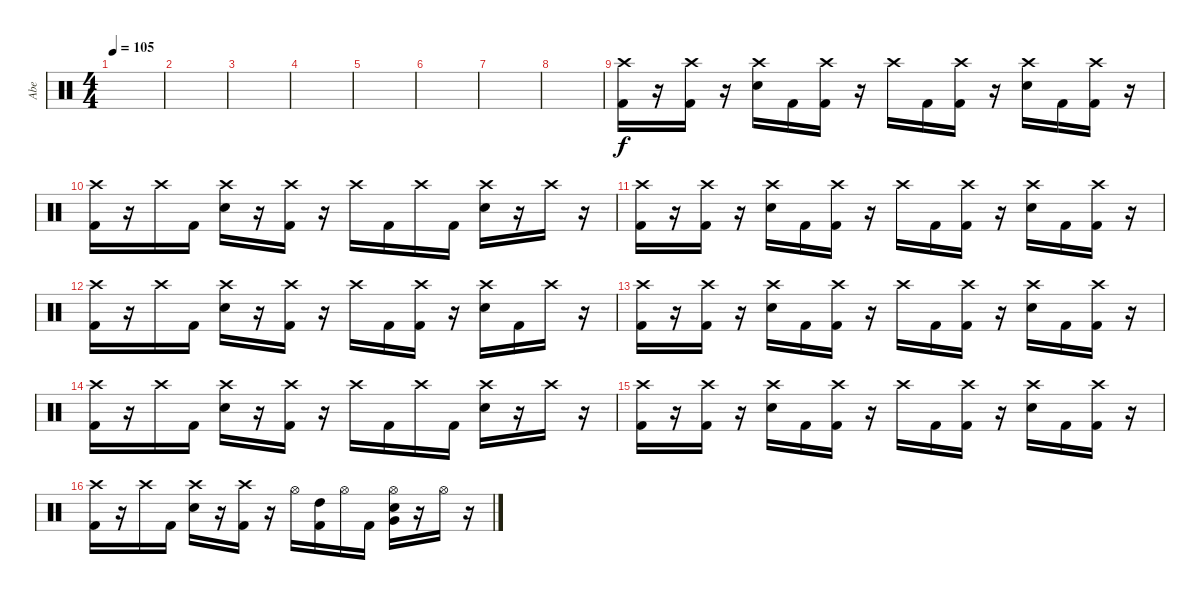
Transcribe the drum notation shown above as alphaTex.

\track ("Abe" "Abe") {instrument percussion}
\staff {score}
\articulation defaults
\ts (4 4)
\tempo 105
\clef neutral
\ks c
|
|
|
|
|
|
|
|
("Crash high (hit)" "Kick (hit) 2").16 r.16 ("Crash high (hit)" "Kick (hit) 2").16 r.16 ("Crash high (hit)" "Electric Snare (hit)").16 "Kick (hit) 2".16 ("Crash high (hit)" "Kick (hit) 2").16 r.16 "Crash high (hit)".16 "Kick (hit) 2".16 ("Crash high (hit)" "Kick (hit) 2").16 r.16 ("Crash high (hit)" "Electric Snare (hit)").16 "Kick (hit) 2".16 ("Crash high (hit)" "Kick (hit) 2").16 r.16 |
("Crash high (hit)" "Kick (hit) 2").16 r.16 "Crash high (hit)".16 "Kick (hit) 2".16 ("Crash high (hit)" "Electric Snare (hit)").16 r.16 ("Crash high (hit)" "Kick (hit) 2").16 r.16 "Crash high (hit)".16 "Kick (hit) 2".16 "Crash high (hit)".16 "Kick (hit) 2".16 ("Crash high (hit)" "Electric Snare (hit)").16 r.16 "Crash high (hit)".16 r.16 |
("Crash high (hit)" "Kick (hit) 2").16 r.16 ("Crash high (hit)" "Kick (hit) 2").16 r.16 ("Crash high (hit)" "Electric Snare (hit)").16 "Kick (hit) 2".16 ("Crash high (hit)" "Kick (hit) 2").16 r.16 "Crash high (hit)".16 "Kick (hit) 2".16 ("Crash high (hit)" "Kick (hit) 2").16 r.16 ("Crash high (hit)" "Electric Snare (hit)").16 "Kick (hit) 2".16 ("Crash high (hit)" "Kick (hit) 2").16 r.16 |
("Crash high (hit)" "Kick (hit) 2").16 r.16 "Crash high (hit)".16 "Kick (hit) 2".16 ("Crash high (hit)" "Electric Snare (hit)").16 r.16 ("Crash high (hit)" "Kick (hit) 2").16 r.16 "Crash high (hit)".16 "Kick (hit) 2".16 ("Crash high (hit)" "Kick (hit) 2").16 r.16 ("Crash high (hit)" "Electric Snare (hit)").16 "Kick (hit) 2".16 "Crash high (hit)".16 r.16 |
("Crash high (hit)" "Kick (hit) 2").16 r.16 ("Crash high (hit)" "Kick (hit) 2").16 r.16 ("Crash high (hit)" "Electric Snare (hit)").16 "Kick (hit) 2".16 ("Crash high (hit)" "Kick (hit) 2").16 r.16 "Crash high (hit)".16 "Kick (hit) 2".16 ("Crash high (hit)" "Kick (hit) 2").16 r.16 ("Crash high (hit)" "Electric Snare (hit)").16 "Kick (hit) 2".16 ("Crash high (hit)" "Kick (hit) 2").16 r.16 |
("Crash high (hit)" "Kick (hit) 2").16 r.16 "Crash high (hit)".16 "Kick (hit) 2".16 ("Crash high (hit)" "Electric Snare (hit)").16 r.16 ("Crash high (hit)" "Kick (hit) 2").16 r.16 "Crash high (hit)".16 "Kick (hit) 2".16 "Crash high (hit)".16 "Kick (hit) 2".16 ("Crash high (hit)" "Electric Snare (hit)").16 r.16 "Crash high (hit)".16 r.16 |
("Crash high (hit)" "Kick (hit) 2").16 r.16 ("Crash high (hit)" "Kick (hit) 2").16 r.16 ("Crash high (hit)" "Electric Snare (hit)").16 "Kick (hit) 2".16 ("Crash high (hit)" "Kick (hit) 2").16 r.16 "Crash high (hit)".16 "Kick (hit) 2".16 ("Crash high (hit)" "Kick (hit) 2").16 r.16 ("Crash high (hit)" "Electric Snare (hit)").16 "Kick (hit) 2".16 ("Crash high (hit)" "Kick (hit) 2").16 r.16 |
("Crash high (hit)" "Kick (hit) 2").16 r.16 "Crash high (hit)".16 "Kick (hit) 2".16 ("Crash high (hit)" "Electric Snare (hit)").16 r.16 ("Crash high (hit)" "Kick (hit) 2").16 r.16 "Hi-Hat (open)".16 ("High Tom (hit)" "Kick (hit) 2").16 "Hi-Hat (open)".16 "Kick (hit) 2".16 ("Electric Snare (hit)" "Hi-Hat (open)" "Very Low Tom (hit)").16 r.16 "Hi-Hat (open)".16 r.16
